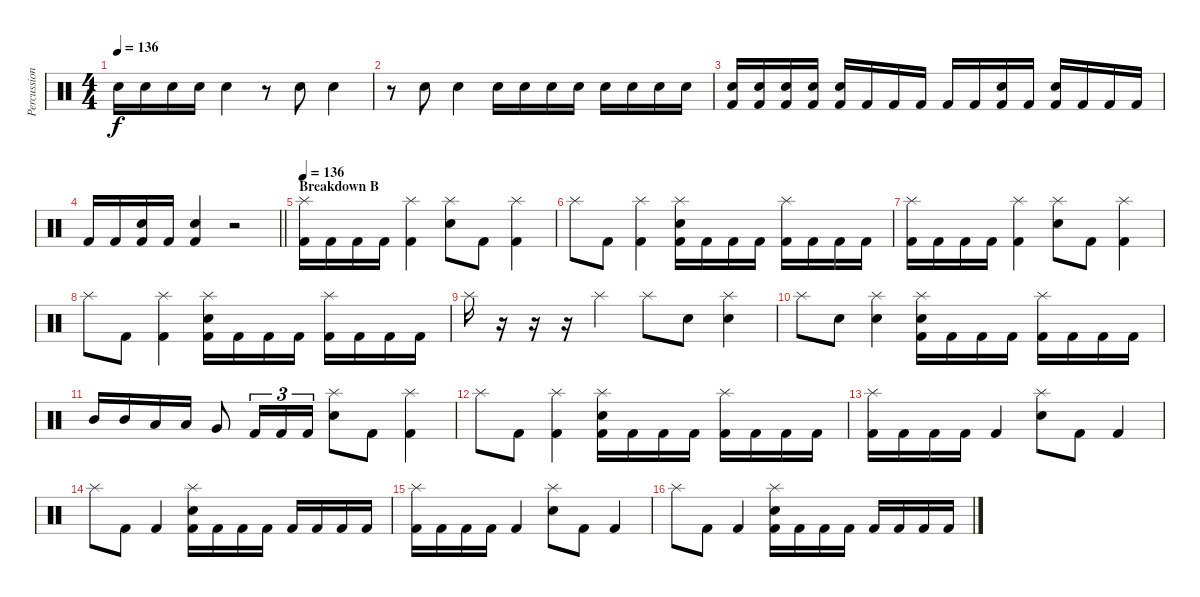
\track ("Percussion" "Percussion") {instrument percussion}
\staff {score}
\articulation defaults
\ts (4 4)
\tempo 136
\clef neutral
\ks c "Snare (hit) 2".16{dy f} "Snare (hit) 2".16 "Snare (hit) 2".16 "Snare (hit) 2".16 "Snare (hit) 2".4
r.8 "Snare (hit) 2".8 "Snare (hit) 2".4 |
r.8 "Snare (hit) 2".8 "Snare (hit) 2".4 "Snare (hit) 2".16 "Snare (hit) 2".16 "Snare (hit) 2".16 "Snare (hit) 2".16 "Snare (hit) 2".16 "Snare (hit) 2".16 "Snare (hit) 2".16 "Snare (hit) 2".16 |
("Snare (hit) 2" "Kick (hit) 2").16 ("Snare (hit) 2" "Kick (hit) 2").16 ("Snare (hit) 2" "Kick (hit) 2").16 ("Snare (hit) 2" "Kick (hit) 2").16 ("Snare (hit) 2" "Kick (hit) 2").16 "Kick (hit) 2".16 "Kick (hit) 2".16 "Kick (hit) 2".16 "Kick (hit) 2".16 "Kick (hit) 2".16 ("Snare (hit) 2" "Kick (hit) 2").16 "Kick (hit) 2".16 ("Snare (hit) 2" "Kick (hit) 2").16 "Kick (hit) 2".16 "Kick (hit) 2".16 "Kick (hit) 2".16 |
\barLineRight lightlight "Kick (hit) 2".16 "Kick (hit) 2".16
("Snare (hit) 2" "Kick (hit) 2").16 "Kick (hit) 2".16 ("Snare (hit) 2" "Kick (hit) 2").4 r.2 |
\section ("" "Breakdown B")
\tempo 136
("Splash (hit)" "Kick (hit) 2").16 "Kick (hit) 2".16 "Kick (hit) 2".16 "Kick (hit) 2".16 ("Splash (hit)" "Kick (hit) 2").4 ("Splash (hit)" "Snare (hit) 2").8 "Kick (hit) 2".8 ("Splash (hit)" "Kick (hit) 2").4 |
"Splash (hit)".8 "Kick (hit) 2".8 ("Splash (hit)" "Kick (hit) 2").4 ("Splash (hit)" "Snare (hit) 2" "Kick (hit) 2").16 "Kick (hit) 2".16 "Kick (hit) 2".16 "Kick (hit) 2".16 ("Splash (hit)" "Kick (hit) 2").16 "Kick (hit) 2".16 "Kick (hit) 2".16 "Kick (hit) 2".16 |
("Splash (hit)" "Kick (hit) 2").16 "Kick (hit) 2".16 "Kick (hit) 2".16 "Kick (hit) 2".16 ("Splash (hit)" "Kick (hit) 2").4 ("Splash (hit)" "Snare (hit) 2").8 "Kick (hit) 2".8 ("Splash (hit)" "Kick (hit) 2").4 |
"Splash (hit)".8 "Kick (hit) 2".8 ("Splash (hit)" "Kick (hit) 2").4 ("Splash (hit)" "Snare (hit) 2" "Kick (hit) 2").16 "Kick (hit) 2".16 "Kick (hit) 2".16 "Kick (hit) 2".16 ("Splash (hit)" "Kick (hit) 2").16 "Kick (hit) 2".16 "Kick (hit) 2".16 "Kick (hit) 2".16 |
"Splash (hit)".16 r.16 r.16 r.16 "Splash (hit)".4 "Splash (hit)".8 "Snare (hit) 2".8 ("Splash (hit)" "Snare (hit) 2").4 |
"Splash (hit)".8 "Snare (hit) 2".8 ("Splash (hit)" "Snare (hit) 2").4 ("Splash (hit)" "Snare (hit) 2" "Kick (hit) 2").16 "Kick (hit) 2".16 "Kick (hit) 2".16 "Kick (hit) 2".16 ("Splash (hit)" "Kick (hit) 2").16 "Kick (hit) 2".16 "Kick (hit) 2".16 "Kick (hit) 2".16 |
"Mid Tom (hit)".16 "Mid Tom (hit)".16 "Low Tom (hit)".16 "Low Tom (hit)".16 "Very Low Tom (hit)".8 "Kick (hit) 2".16{tu (3 2)} "Kick (hit) 2".16{tu (3 2)} "Kick (hit) 2".16{tu (3 2)} ("Splash (hit)" "Snare (hit) 2").8 "Kick (hit) 2".8 ("Splash (hit)" "Kick (hit) 2").4 |
"Splash (hit)".8 "Kick (hit) 2".8 ("Splash (hit)" "Kick (hit) 2").4 ("Splash (hit)" "Snare (hit) 2" "Kick (hit) 2").16 "Kick (hit) 2".16 "Kick (hit) 2".16 "Kick (hit) 2".16 ("Splash (hit)" "Kick (hit) 2").16 "Kick (hit) 2".16 "Kick (hit) 2".16 "Kick (hit) 2".16 |
("Splash (hit)" "Kick (hit) 2").16 "Kick (hit) 2".16 "Kick (hit) 2".16 "Kick (hit) 2".16 "Kick (hit) 2".4 ("Splash (hit)" "Snare (hit) 2").8 "Kick (hit) 2".8 "Kick (hit) 2".4 |
"Splash (hit)".8 "Kick (hit) 2".8 "Kick (hit) 2".4 ("Splash (hit)" "Snare (hit) 2" "Kick (hit) 2").16 "Kick (hit) 2".16 "Kick (hit) 2".16 "Kick (hit) 2".16 "Kick (hit) 2".16 "Kick (hit) 2".16 "Kick (hit) 2".16 "Kick (hit) 2".16 |
("Splash (hit)" "Kick (hit) 2").16 "Kick (hit) 2".16 "Kick (hit) 2".16 "Kick (hit) 2".16 "Kick (hit) 2".4 ("Splash (hit)" "Snare (hit) 2").8 "Kick (hit) 2".8 "Kick (hit) 2".4 |
"Splash (hit)".8 "Kick (hit) 2".8 "Kick (hit) 2".4 ("Splash (hit)" "Snare (hit) 2" "Kick (hit) 2").16 "Kick (hit) 2".16 "Kick (hit) 2".16 "Kick (hit) 2".16 "Kick (hit) 2".16 "Kick (hit) 2".16 "Kick (hit) 2".16 "Kick (hit) 2".16
